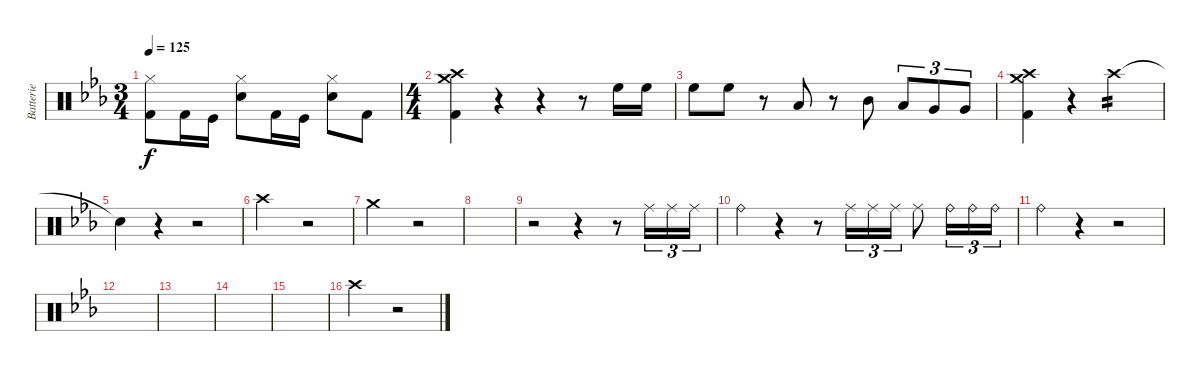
\track ("Batterie" "Batterie") {instrument percussion}
\staff {score}
\articulation defaults
\ts (3 4)
\tempo 125
\clef neutral
\ks eb
("Hi-Hat (closed)" "Kick (hit) 2").8{dy f} "Kick (hit) 2".16 "Kick (hit)".16 ("Hi-Hat (closed)" "Electric Snare (hit)").8 "Kick (hit) 2".16 "Kick (hit)".16 ("Hi-Hat (closed)" "Electric Snare (hit)").8 "Kick (hit) 2".8 |
\ts (4 4)
("Crash high (hit)" "Crash medium (hit)" "Kick (hit) 2").4 r.4 r.4 r.8 "High Floor Tom (hit)".16 "High Floor Tom (hit)".16 |
"High Floor Tom (hit)".8 "High Floor Tom (hit)".8 r.8 "Low Tom (hit)".8 r.8 "Mid Tom (hit)".8 "Low Tom (hit)".8{tu (3 2)} "Very Low Tom (hit)".8{tu (3 2)} "Very Low Tom (hit)".8{tu (3 2)} |
("Crash high (hit)" "Crash medium (hit)" "Kick (hit) 2").4 r.4 "Crash high (hit)".2{tp 2} |
"Snare (hit)"{t}.4 r.4 r.2 |
"Crash high (hit)".2 r.2 |
"Crash medium (hit)".2 r.2 |
|
r.2 r.4 r.8 "Ride (middle)".16{tu (3 2)} "Ride (middle)".16{tu (3 2)} "Ride (middle)".16{tu (3 2)} |
"Ride (bell)".4 r.4 r.8 "Ride (middle)".16{tu (3 2)} "Ride (middle)".16{tu (3 2)} "Ride (middle)".16{tu (3 2)} "Ride (middle)".8 "Ride (bell)".16{tu (3 2)} "Ride (bell)".16{tu (3 2)} "Ride (bell)".16{tu (3 2)} |
"Ride (bell)".4 r.4 r.2 |
|
|
|
|
"Crash high (hit)".2 r.2
